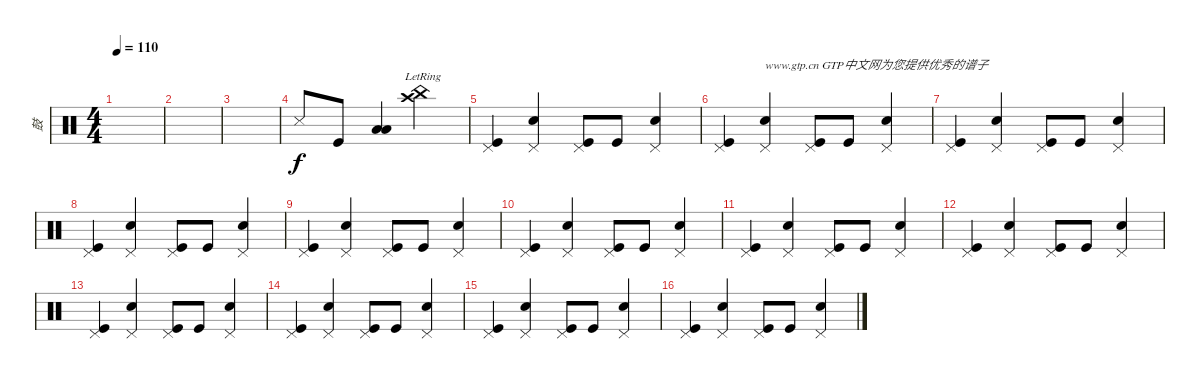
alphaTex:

\track ("鼓" "鼓") {instrument percussion}
\staff {score}
\articulation defaults
\ts (4 4)
\tempo 110
\clef neutral
\ks c
|
|
|
"Snare (side stick) 3".8 "Kick (hit)".8 ("Low Floor Tom (hit)" "Low Tom (hit)").4 ("China (hit)" "Crash high (hit)"{lr}).4 |
("Pedal Hi-Hat (hit)" "Kick (hit)").4 ("Pedal Hi-Hat (hit)" "Snare (hit) 2").4 ("Pedal Hi-Hat (hit)" "Kick (hit)").8 "Kick (hit)".8 ("Pedal Hi-Hat (hit)" "Snare (hit) 2").4 |
("Pedal Hi-Hat (hit)" "Kick (hit)").4 ("Pedal Hi-Hat (hit)" "Snare (hit) 2").4{txt "www.gtp.cn GTP中文网为您提供优秀的谱子"} ("Pedal Hi-Hat (hit)" "Kick (hit)").8 "Kick (hit)".8 ("Pedal Hi-Hat (hit)" "Snare (hit) 2").4 |
("Pedal Hi-Hat (hit)" "Kick (hit)").4 ("Pedal Hi-Hat (hit)" "Snare (hit) 2").4 ("Pedal Hi-Hat (hit)" "Kick (hit)").8 "Kick (hit)".8 ("Pedal Hi-Hat (hit)" "Snare (hit) 2").4 |
("Pedal Hi-Hat (hit)" "Kick (hit)").4 ("Pedal Hi-Hat (hit)" "Snare (hit) 2").4 ("Pedal Hi-Hat (hit)" "Kick (hit)").8 "Kick (hit)".8 ("Pedal Hi-Hat (hit)" "Snare (hit) 2").4 |
("Pedal Hi-Hat (hit)" "Kick (hit)").4 ("Pedal Hi-Hat (hit)" "Snare (hit) 2").4 ("Pedal Hi-Hat (hit)" "Kick (hit)").8 "Kick (hit)".8 ("Pedal Hi-Hat (hit)" "Snare (hit) 2").4 |
("Pedal Hi-Hat (hit)" "Kick (hit)").4 ("Pedal Hi-Hat (hit)" "Snare (hit) 2").4 ("Pedal Hi-Hat (hit)" "Kick (hit)").8 "Kick (hit)".8 ("Pedal Hi-Hat (hit)" "Snare (hit) 2").4 |
("Pedal Hi-Hat (hit)" "Kick (hit)").4 ("Pedal Hi-Hat (hit)" "Snare (hit) 2").4 ("Pedal Hi-Hat (hit)" "Kick (hit)").8 "Kick (hit)".8 ("Pedal Hi-Hat (hit)" "Snare (hit) 2").4 |
("Pedal Hi-Hat (hit)" "Kick (hit)").4 ("Pedal Hi-Hat (hit)" "Snare (hit) 2").4 ("Pedal Hi-Hat (hit)" "Kick (hit)").8 "Kick (hit)".8 ("Pedal Hi-Hat (hit)" "Snare (hit) 2").4 |
("Pedal Hi-Hat (hit)" "Kick (hit)").4 ("Pedal Hi-Hat (hit)" "Snare (hit) 2").4 ("Pedal Hi-Hat (hit)" "Kick (hit)").8 "Kick (hit)".8 ("Pedal Hi-Hat (hit)" "Snare (hit) 2").4 |
("Pedal Hi-Hat (hit)" "Kick (hit)").4 ("Pedal Hi-Hat (hit)" "Snare (hit) 2").4 ("Pedal Hi-Hat (hit)" "Kick (hit)").8 "Kick (hit)".8 ("Pedal Hi-Hat (hit)" "Snare (hit) 2").4 |
("Pedal Hi-Hat (hit)" "Kick (hit)").4 ("Pedal Hi-Hat (hit)" "Snare (hit) 2").4 ("Pedal Hi-Hat (hit)" "Kick (hit)").8 "Kick (hit)".8 ("Pedal Hi-Hat (hit)" "Snare (hit) 2").4 |
("Pedal Hi-Hat (hit)" "Kick (hit)").4 ("Pedal Hi-Hat (hit)" "Snare (hit) 2").4 ("Pedal Hi-Hat (hit)" "Kick (hit)").8 "Kick (hit)".8 ("Pedal Hi-Hat (hit)" "Snare (hit) 2").4
